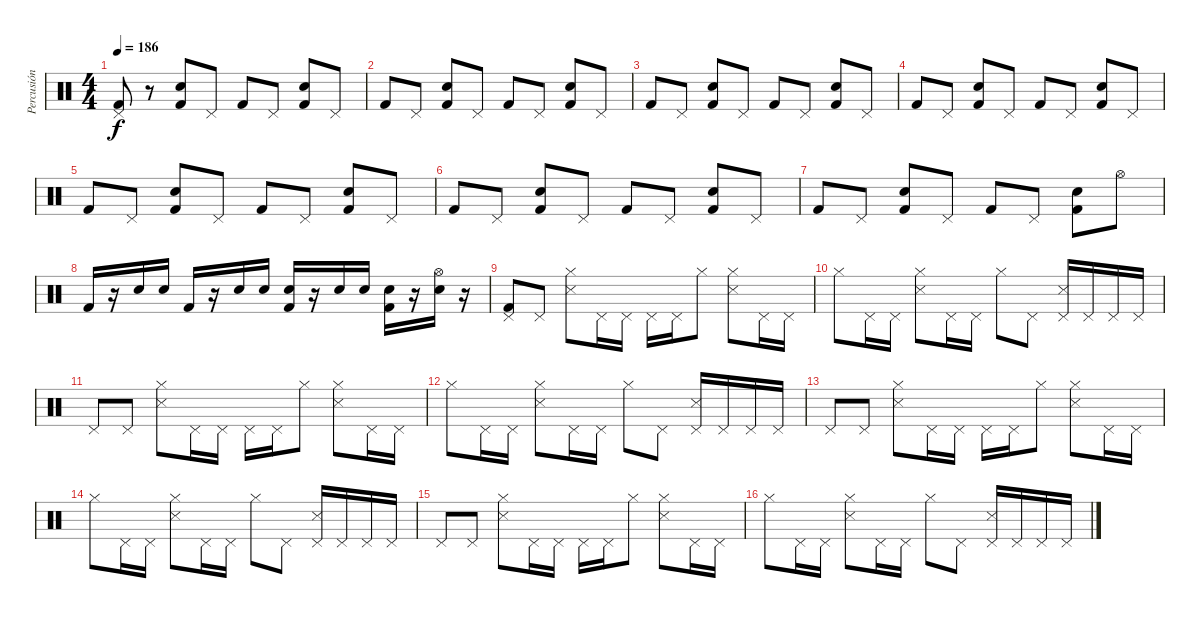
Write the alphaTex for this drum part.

\track ("Percusión" "Percusión") {instrument percussion}
\staff {score}
\articulation defaults
\ts (4 4)
\tempo 186
\clef neutral
\ks c
("Kick (hit) 2" "Pedal Hi-Hat (hit)").8{dy f} r.8 ("Kick (hit) 2" "Snare (hit) 2").8 "Pedal Hi-Hat (hit)".8 "Kick (hit) 2".8 "Pedal Hi-Hat (hit)".8 ("Kick (hit) 2" "Snare (hit) 2").8 "Pedal Hi-Hat (hit)".8 |
"Kick (hit) 2".8 "Pedal Hi-Hat (hit)".8 ("Kick (hit) 2" "Snare (hit) 2").8 "Pedal Hi-Hat (hit)".8 "Kick (hit) 2".8 "Pedal Hi-Hat (hit)".8 ("Kick (hit) 2" "Snare (hit) 2").8 "Pedal Hi-Hat (hit)".8 |
"Kick (hit) 2".8 "Pedal Hi-Hat (hit)".8 ("Kick (hit) 2" "Snare (hit) 2").8 "Pedal Hi-Hat (hit)".8 "Kick (hit) 2".8 "Pedal Hi-Hat (hit)".8 ("Kick (hit) 2" "Snare (hit) 2").8 "Pedal Hi-Hat (hit)".8 |
"Kick (hit) 2".8 "Pedal Hi-Hat (hit)".8 ("Kick (hit) 2" "Snare (hit) 2").8 "Pedal Hi-Hat (hit)".8 "Kick (hit) 2".8 "Pedal Hi-Hat (hit)".8 ("Kick (hit) 2" "Snare (hit) 2").8 "Pedal Hi-Hat (hit)".8 |
"Kick (hit) 2".8 "Pedal Hi-Hat (hit)".8 ("Kick (hit) 2" "Snare (hit) 2").8 "Pedal Hi-Hat (hit)".8 "Kick (hit) 2".8 "Pedal Hi-Hat (hit)".8 ("Kick (hit) 2" "Snare (hit) 2").8 "Pedal Hi-Hat (hit)".8 |
"Kick (hit) 2".8 "Pedal Hi-Hat (hit)".8 ("Kick (hit) 2" "Snare (hit) 2").8 "Pedal Hi-Hat (hit)".8 "Kick (hit) 2".8 "Pedal Hi-Hat (hit)".8 ("Kick (hit) 2" "Snare (hit) 2").8 "Pedal Hi-Hat (hit)".8 |
"Kick (hit) 2".8 "Pedal Hi-Hat (hit)".8 ("Kick (hit) 2" "Snare (hit) 2").8 "Pedal Hi-Hat (hit)".8 "Kick (hit) 2".8 "Pedal Hi-Hat (hit)".8 ("Kick (hit) 2" "Snare (hit) 2").8 "Hi-Hat (open)".8 |
"Kick (hit) 2".16 r.16 "Snare (hit) 2".16 "Snare (hit) 2".16 "Kick (hit) 2".16 r.16 "Snare (hit) 2".16 "Snare (hit) 2".16 ("Kick (hit) 2" "Snare (hit) 2").16 r.16 "Snare (hit) 2".16 "Snare (hit) 2".16 ("Kick (hit) 2" "Snare (hit) 2").16 r.16 ("Snare (hit) 2" "Hi-Hat (open)").16 r.16 |
("Kick (hit) 2" "Pedal Hi-Hat (hit)").8{volume 6} "Pedal Hi-Hat (hit)".8 ("Metronome (hit)" "Hi-Hat (closed)").8 "Pedal Hi-Hat (hit)".16 "Pedal Hi-Hat (hit)".16 "Pedal Hi-Hat (hit)".16 "Pedal Hi-Hat (hit)".16 "Hi-Hat (closed)".8 ("Metronome (hit)" "Hi-Hat (closed)").8 "Pedal Hi-Hat (hit)".16 "Pedal Hi-Hat (hit)".16 |
"Hi-Hat (closed)".8 "Pedal Hi-Hat (hit)".16 "Pedal Hi-Hat (hit)".16 ("Metronome (hit)" "Hi-Hat (closed)").8 "Pedal Hi-Hat (hit)".16 "Pedal Hi-Hat (hit)".16 "Hi-Hat (closed)".8 "Pedal Hi-Hat (hit)".8 ("Metronome (hit)" "Pedal Hi-Hat (hit)").16 "Pedal Hi-Hat (hit)".16 "Pedal Hi-Hat (hit)".16 "Pedal Hi-Hat (hit)".16 |
"Pedal Hi-Hat (hit)".8 "Pedal Hi-Hat (hit)".8 ("Metronome (hit)" "Hi-Hat (closed)").8 "Pedal Hi-Hat (hit)".16 "Pedal Hi-Hat (hit)".16 "Pedal Hi-Hat (hit)".16 "Pedal Hi-Hat (hit)".16 "Hi-Hat (closed)".8 ("Metronome (hit)" "Hi-Hat (closed)").8 "Pedal Hi-Hat (hit)".16 "Pedal Hi-Hat (hit)".16 |
"Hi-Hat (closed)".8 "Pedal Hi-Hat (hit)".16 "Pedal Hi-Hat (hit)".16 ("Metronome (hit)" "Hi-Hat (closed)").8 "Pedal Hi-Hat (hit)".16 "Pedal Hi-Hat (hit)".16 "Hi-Hat (closed)".8 "Pedal Hi-Hat (hit)".8 ("Metronome (hit)" "Pedal Hi-Hat (hit)").16 "Pedal Hi-Hat (hit)".16 "Pedal Hi-Hat (hit)".16 "Pedal Hi-Hat (hit)".16 |
"Pedal Hi-Hat (hit)".8 "Pedal Hi-Hat (hit)".8 ("Metronome (hit)" "Hi-Hat (closed)").8 "Pedal Hi-Hat (hit)".16 "Pedal Hi-Hat (hit)".16 "Pedal Hi-Hat (hit)".16 "Pedal Hi-Hat (hit)".16 "Hi-Hat (closed)".8 ("Metronome (hit)" "Hi-Hat (closed)").8 "Pedal Hi-Hat (hit)".16 "Pedal Hi-Hat (hit)".16 |
"Hi-Hat (closed)".8 "Pedal Hi-Hat (hit)".16 "Pedal Hi-Hat (hit)".16 ("Metronome (hit)" "Hi-Hat (closed)").8 "Pedal Hi-Hat (hit)".16 "Pedal Hi-Hat (hit)".16 "Hi-Hat (closed)".8 "Pedal Hi-Hat (hit)".8 ("Metronome (hit)" "Pedal Hi-Hat (hit)").16 "Pedal Hi-Hat (hit)".16 "Pedal Hi-Hat (hit)".16 "Pedal Hi-Hat (hit)".16 |
"Pedal Hi-Hat (hit)".8 "Pedal Hi-Hat (hit)".8 ("Metronome (hit)" "Hi-Hat (closed)").8 "Pedal Hi-Hat (hit)".16 "Pedal Hi-Hat (hit)".16 "Pedal Hi-Hat (hit)".16 "Pedal Hi-Hat (hit)".16 "Hi-Hat (closed)".8 ("Metronome (hit)" "Hi-Hat (closed)").8 "Pedal Hi-Hat (hit)".16 "Pedal Hi-Hat (hit)".16 |
"Hi-Hat (closed)".8 "Pedal Hi-Hat (hit)".16 "Pedal Hi-Hat (hit)".16 ("Metronome (hit)" "Hi-Hat (closed)").8 "Pedal Hi-Hat (hit)".16 "Pedal Hi-Hat (hit)".16 "Hi-Hat (closed)".8 "Pedal Hi-Hat (hit)".8 ("Metronome (hit)" "Pedal Hi-Hat (hit)").16 "Pedal Hi-Hat (hit)".16 "Pedal Hi-Hat (hit)".16 "Pedal Hi-Hat (hit)".16
